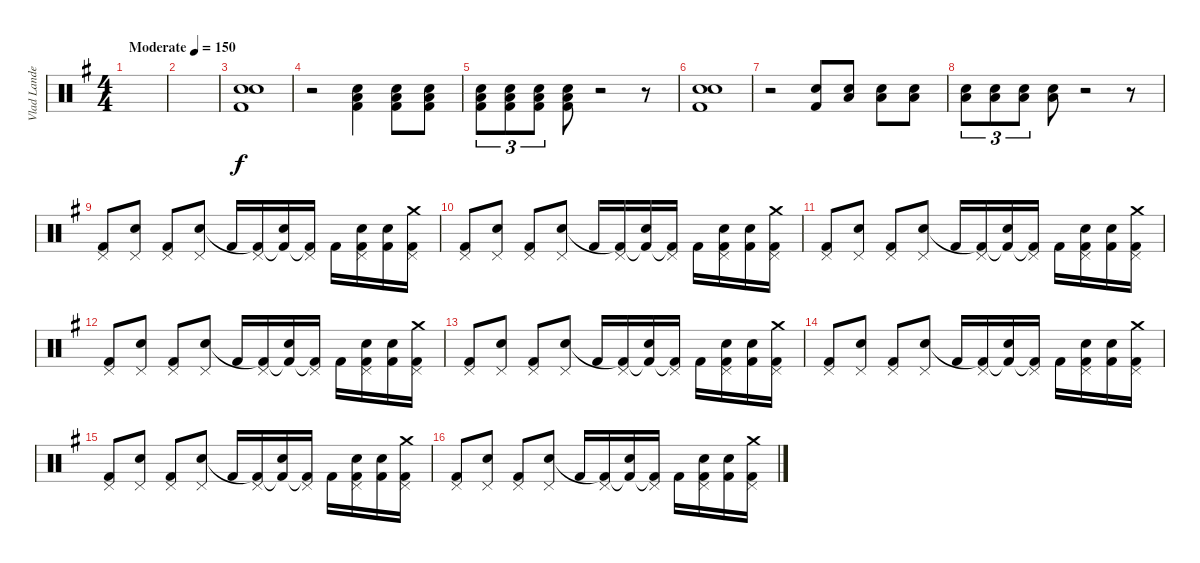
\track ("Vlad Landeros" "Vlad Lande") {instrument percussion}
\staff {score}
\articulation defaults
\ts (4 4)
\tempo (150 "Moderate")
\clef neutral
\ks eminor
|
|
("Snare (hit) 2" "Snare (hit) 2" "Kick (hit) 2").1 |
r.2 ("Snare (hit) 2" "Kick (hit) 2" "Low Floor Tom (hit)").4 ("Snare (hit) 2" "Kick (hit) 2" "Low Floor Tom (hit)").8 ("Snare (hit) 2" "Kick (hit) 2" "Low Floor Tom (hit)").8 |
("Snare (hit) 2" "Kick (hit) 2" "Low Floor Tom (hit)").8{tu (3 2)} ("Snare (hit) 2" "Kick (hit) 2" "Low Floor Tom (hit)").8{tu (3 2)} ("Snare (hit) 2" "Kick (hit) 2" "Low Floor Tom (hit)").8{tu (3 2)} ("Snare (hit) 2" "Kick (hit) 2" "Low Floor Tom (hit)").8 r.2 r.8 |
("Snare (hit) 2" "Snare (hit) 2" "Kick (hit) 2").1 |
r.2 ("Snare (hit) 2" "Kick (hit) 2").8 ("Snare (hit) 2" "Low Floor Tom (hit)").8 ("Snare (hit) 2" "Low Floor Tom (hit)").8 ("Snare (hit) 2" "Low Floor Tom (hit)").8 |
("Snare (hit) 2" "Low Floor Tom (hit)").8{tu (3 2)} ("Snare (hit) 2" "Low Floor Tom (hit)").8{tu (3 2)} ("Snare (hit) 2" "Low Floor Tom (hit)").8{tu (3 2)} ("Snare (hit) 2" "Low Floor Tom (hit)").8 r.2 r.8 |
("Pedal Hi-Hat (hit)" "Kick (hit) 2").8 ("Pedal Hi-Hat (hit)" "Snare (hit) 2").8 ("Pedal Hi-Hat (hit)" "Kick (hit) 2").8 ("Pedal Hi-Hat (hit)" "Snare (hit) 2").8 "Kick (hit) 2".16 ("Pedal Hi-Hat (hit)" "Kick (hit) 2"{t}).16 ("Snare (hit) 2" "Kick (hit) 2"{t}).16 ("Pedal Hi-Hat (hit)" "Kick (hit) 2"{t}).16 "Kick (hit) 2".16 ("Pedal Hi-Hat (hit)" "Snare (hit) 2" "Kick (hit) 2").16 ("Snare (hit) 2" "Kick (hit) 2").16 ("Crash medium (hit)" "Pedal Hi-Hat (hit)" "Kick (hit) 2").16 |
("Pedal Hi-Hat (hit)" "Kick (hit) 2").8 ("Pedal Hi-Hat (hit)" "Snare (hit) 2").8 ("Pedal Hi-Hat (hit)" "Kick (hit) 2").8 ("Pedal Hi-Hat (hit)" "Snare (hit) 2").8 "Kick (hit) 2".16 ("Pedal Hi-Hat (hit)" "Kick (hit) 2"{t}).16 ("Snare (hit) 2" "Kick (hit) 2"{t}).16 ("Pedal Hi-Hat (hit)" "Kick (hit) 2"{t}).16 "Kick (hit) 2".16 ("Pedal Hi-Hat (hit)" "Snare (hit) 2" "Kick (hit) 2").16 ("Snare (hit) 2" "Kick (hit) 2").16 ("Crash medium (hit)" "Pedal Hi-Hat (hit)" "Kick (hit) 2").16 |
("Pedal Hi-Hat (hit)" "Kick (hit) 2").8 ("Pedal Hi-Hat (hit)" "Snare (hit) 2").8 ("Pedal Hi-Hat (hit)" "Kick (hit) 2").8 ("Pedal Hi-Hat (hit)" "Snare (hit) 2").8 "Kick (hit) 2".16 ("Pedal Hi-Hat (hit)" "Kick (hit) 2"{t}).16 ("Snare (hit) 2" "Kick (hit) 2"{t}).16 ("Pedal Hi-Hat (hit)" "Kick (hit) 2"{t}).16 "Kick (hit) 2".16 ("Pedal Hi-Hat (hit)" "Snare (hit) 2" "Kick (hit) 2").16 ("Snare (hit) 2" "Kick (hit) 2").16 ("Crash medium (hit)" "Pedal Hi-Hat (hit)" "Kick (hit) 2").16 |
("Pedal Hi-Hat (hit)" "Kick (hit) 2").8 ("Pedal Hi-Hat (hit)" "Snare (hit) 2").8 ("Pedal Hi-Hat (hit)" "Kick (hit) 2").8 ("Pedal Hi-Hat (hit)" "Snare (hit) 2").8 "Kick (hit) 2".16 ("Pedal Hi-Hat (hit)" "Kick (hit) 2"{t}).16 ("Snare (hit) 2" "Kick (hit) 2"{t}).16 ("Pedal Hi-Hat (hit)" "Kick (hit) 2"{t}).16 "Kick (hit) 2".16 ("Pedal Hi-Hat (hit)" "Snare (hit) 2" "Kick (hit) 2").16 ("Snare (hit) 2" "Kick (hit) 2").16 ("Crash medium (hit)" "Pedal Hi-Hat (hit)" "Kick (hit) 2").16 |
("Pedal Hi-Hat (hit)" "Kick (hit) 2").8 ("Pedal Hi-Hat (hit)" "Snare (hit) 2").8 ("Pedal Hi-Hat (hit)" "Kick (hit) 2").8 ("Pedal Hi-Hat (hit)" "Snare (hit) 2").8 "Kick (hit) 2".16 ("Pedal Hi-Hat (hit)" "Kick (hit) 2"{t}).16 ("Snare (hit) 2" "Kick (hit) 2"{t}).16 ("Pedal Hi-Hat (hit)" "Kick (hit) 2"{t}).16 "Kick (hit) 2".16 ("Pedal Hi-Hat (hit)" "Snare (hit) 2" "Kick (hit) 2").16 ("Snare (hit) 2" "Kick (hit) 2").16 ("Crash medium (hit)" "Pedal Hi-Hat (hit)" "Kick (hit) 2").16 |
("Pedal Hi-Hat (hit)" "Kick (hit) 2").8 ("Pedal Hi-Hat (hit)" "Snare (hit) 2").8 ("Pedal Hi-Hat (hit)" "Kick (hit) 2").8 ("Pedal Hi-Hat (hit)" "Snare (hit) 2").8 "Kick (hit) 2".16 ("Pedal Hi-Hat (hit)" "Kick (hit) 2"{t}).16 ("Snare (hit) 2" "Kick (hit) 2"{t}).16 ("Pedal Hi-Hat (hit)" "Kick (hit) 2"{t}).16 "Kick (hit) 2".16 ("Pedal Hi-Hat (hit)" "Snare (hit) 2" "Kick (hit) 2").16 ("Snare (hit) 2" "Kick (hit) 2").16 ("Crash medium (hit)" "Pedal Hi-Hat (hit)" "Kick (hit) 2").16 |
("Pedal Hi-Hat (hit)" "Kick (hit) 2").8 ("Pedal Hi-Hat (hit)" "Snare (hit) 2").8 ("Pedal Hi-Hat (hit)" "Kick (hit) 2").8 ("Pedal Hi-Hat (hit)" "Snare (hit) 2").8 "Kick (hit) 2".16 ("Pedal Hi-Hat (hit)" "Kick (hit) 2"{t}).16 ("Snare (hit) 2" "Kick (hit) 2"{t}).16 ("Pedal Hi-Hat (hit)" "Kick (hit) 2"{t}).16 "Kick (hit) 2".16 ("Pedal Hi-Hat (hit)" "Snare (hit) 2" "Kick (hit) 2").16 ("Snare (hit) 2" "Kick (hit) 2").16 ("Crash medium (hit)" "Pedal Hi-Hat (hit)" "Kick (hit) 2").16 |
("Pedal Hi-Hat (hit)" "Kick (hit) 2").8 ("Pedal Hi-Hat (hit)" "Snare (hit) 2").8 ("Pedal Hi-Hat (hit)" "Kick (hit) 2").8 ("Pedal Hi-Hat (hit)" "Snare (hit) 2").8 "Kick (hit) 2".16 ("Pedal Hi-Hat (hit)" "Kick (hit) 2"{t}).16 ("Snare (hit) 2" "Kick (hit) 2"{t}).16 ("Pedal Hi-Hat (hit)" "Kick (hit) 2"{t}).16 "Kick (hit) 2".16 ("Pedal Hi-Hat (hit)" "Snare (hit) 2" "Kick (hit) 2").16 ("Snare (hit) 2" "Kick (hit) 2").16 ("Crash medium (hit)" "Pedal Hi-Hat (hit)" "Kick (hit) 2").16
